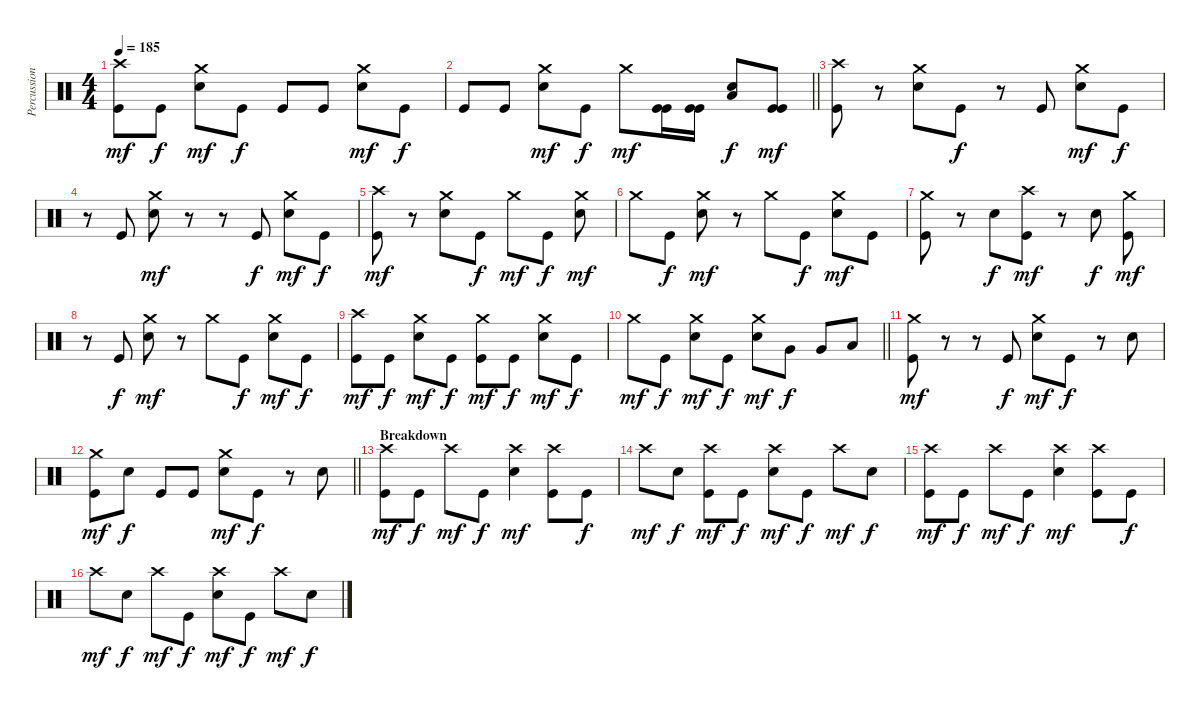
\track ("Percussion" "Percussion") {instrument percussion}
\staff {score}
\articulation defaults
\ts (4 4)
\tempo 185
\clef neutral
\ks c
("Crash high (hit)" "Kick (hit)").8{dy mf} "Kick (hit)".8{dy f} ("Crash medium (hit)" "Electric Snare (hit)").8{dy mf} "Kick (hit)".8{dy f} "Kick (hit)".8 "Kick (hit)".8 ("Crash medium (hit)" "Electric Snare (hit)").8{dy mf} "Kick (hit)".8{dy f} |
\barLineRight lightlight "Kick (hit)".8 "Kick (hit)".8
("Crash medium (hit)" "Electric Snare (hit)").8{dy mf} "Kick (hit)".8{dy f} "Crash medium (hit)".8{dy mf} ("Kick (hit)" "Kick (hit)").16 ("Kick (hit)" "Kick (hit)").16 ("Electric Snare (hit)" "Low Floor Tom (hit)").8{dy f} ("Kick (hit)" "Kick (hit)").8{dy mf} |
("Crash high (hit)" "Kick (hit)").8 r.8 ("Crash medium (hit)" "Electric Snare (hit)").8 "Kick (hit)".8{dy f} r.8 "Kick (hit)".8 ("Crash medium (hit)" "Electric Snare (hit)").8{dy mf} "Kick (hit)".8{dy f} |
r.8 "Kick (hit)".8 ("Crash medium (hit)" "Electric Snare (hit)").8{dy mf} r.8 r.8 "Kick (hit)".8{dy f} ("Crash medium (hit)" "Electric Snare (hit)").8{dy mf} "Kick (hit)".8{dy f} |
("Crash high (hit)" "Kick (hit)").8{dy mf} r.8 ("Crash medium (hit)" "Electric Snare (hit)").8 "Kick (hit)".8{dy f} "Crash medium (hit)".8{dy mf} "Kick (hit)".8{dy f} ("Crash medium (hit)" "Electric Snare (hit)").8{dy mf} |
"Crash medium (hit)".8 "Kick (hit)".8{dy f} ("Crash medium (hit)" "Electric Snare (hit)").8{dy mf} r.8 "Crash medium (hit)".8 "Kick (hit)".8{dy f} ("Crash medium (hit)" "Electric Snare (hit)").8{dy mf} "Kick (hit)".8 |
("Crash medium (hit)" "Kick (hit)").8 r.8 "Electric Snare (hit)".8{dy f} ("Crash high (hit)" "Kick (hit)").8{dy mf} r.8 "Electric Snare (hit)".8{dy f} ("Crash medium (hit)" "Kick (hit)").8{dy mf} |
r.8 "Kick (hit)".8{dy f} ("Crash medium (hit)" "Electric Snare (hit)").8{dy mf} r.8 "Crash medium (hit)".8 "Kick (hit)".8{dy f} ("Crash medium (hit)" "Electric Snare (hit)").8{dy mf} "Kick (hit)".8{dy f} |
("Crash high (hit)" "Kick (hit)").8{dy mf} "Kick (hit)".8{dy f} ("Crash medium (hit)" "Electric Snare (hit)").8{dy mf} "Kick (hit)".8{dy f} ("Crash medium (hit)" "Kick (hit)").8{dy mf} "Kick (hit)".8{dy f} ("Crash medium (hit)" "Electric Snare (hit)").8{dy mf} "Kick (hit)".8{dy f} |
\barLineRight lightlight "Crash medium (hit)".8{dy mf} "Kick (hit)".8{dy f}
("Crash medium (hit)" "Electric Snare (hit)").8{dy mf} "Kick (hit)".8{dy f} ("Crash medium (hit)" "Electric Snare (hit)").8{dy mf} "Very Low Tom (hit)".8{dy f} "Very Low Tom (hit)".8 "Low Floor Tom (hit)".8 |
("Crash medium (hit)" "Kick (hit)").8{dy mf} r.8 r.8 "Kick (hit)".8{dy f} ("Crash medium (hit)" "Electric Snare (hit)").8{dy mf} "Kick (hit)".8{dy f} r.8 "Electric Snare (hit)".8 |
\barLineRight lightlight
("Crash medium (hit)" "Kick (hit)").8{dy mf} "Electric Snare (hit)".8{dy f} "Kick (hit)".8 "Kick (hit)".8 ("Crash medium (hit)" "Electric Snare (hit)").8{dy mf} "Kick (hit)".8{dy f} r.8 "Electric Snare (hit)".8 |
\section ("" "Breakdown")
("Crash high (hit)" "Kick (hit)").8{dy mf} "Kick (hit)".8{dy f} "Crash high (hit)".8{dy mf} "Kick (hit)".8{dy f} ("Crash high (hit)" "Electric Snare (hit)").4{dy mf} ("Crash high (hit)" "Kick (hit)").8 "Kick (hit)".8{dy f} |
"Crash high (hit)".8{dy mf} "Electric Snare (hit)".8{dy f} ("Crash high (hit)" "Kick (hit)").8{dy mf} "Kick (hit)".8{dy f} ("Crash high (hit)" "Electric Snare (hit)").8{dy mf} "Kick (hit)".8{dy f} "Crash high (hit)".8{dy mf} "Electric Snare (hit)".8{dy f} |
("Crash high (hit)" "Kick (hit)").8{dy mf} "Kick (hit)".8{dy f} "Crash high (hit)".8{dy mf} "Kick (hit)".8{dy f} ("Crash high (hit)" "Electric Snare (hit)").4{dy mf} ("Crash high (hit)" "Kick (hit)").8 "Kick (hit)".8{dy f} |
"Crash high (hit)".8{dy mf} "Electric Snare (hit)".8{dy f} "Crash high (hit)".8{dy mf} "Kick (hit)".8{dy f} ("Crash high (hit)" "Electric Snare (hit)").8{dy mf} "Kick (hit)".8{dy f} "Crash high (hit)".8{dy mf} "Electric Snare (hit)".8{dy f}
